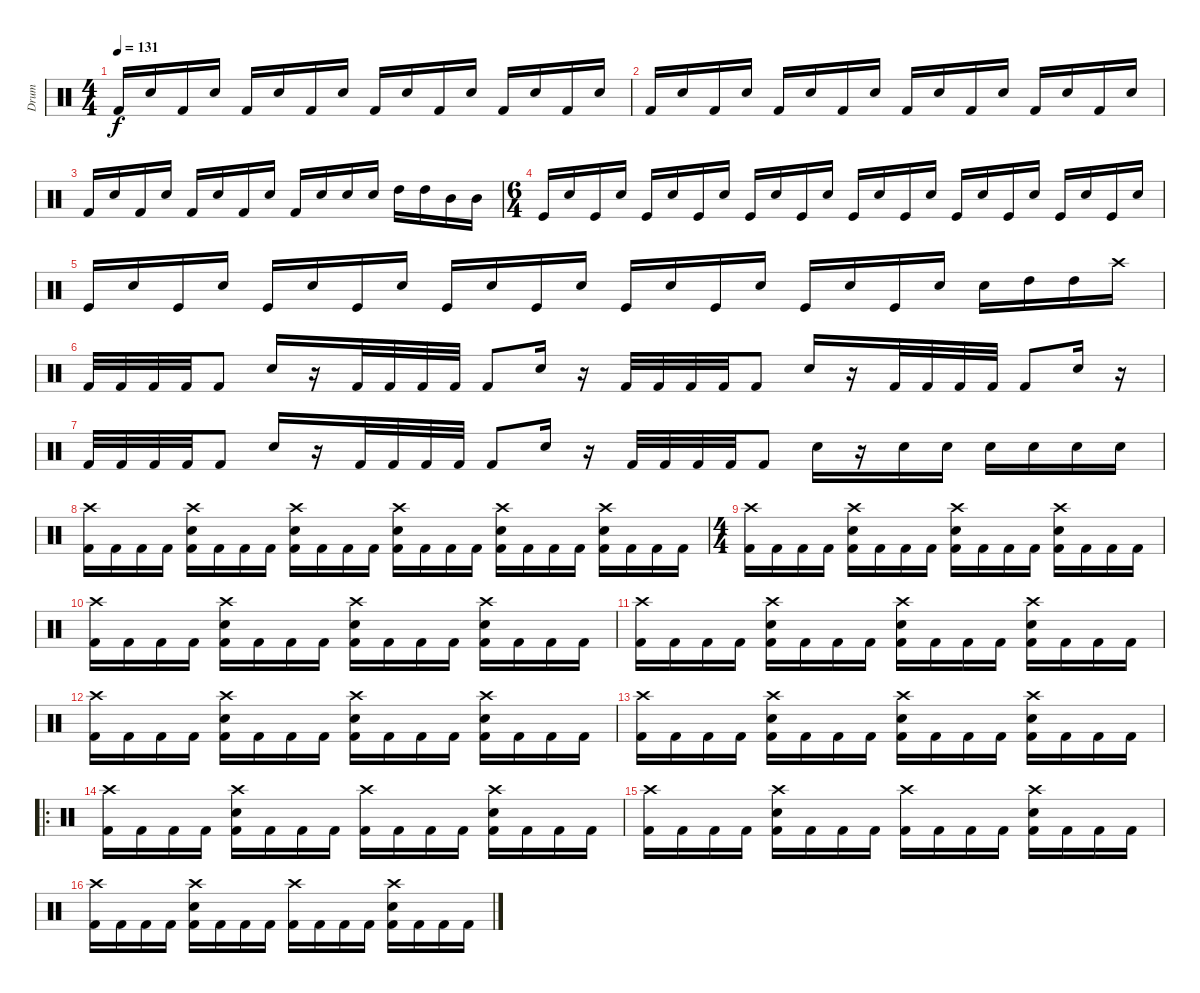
\track ("Drum" "Drum") {instrument percussion}
\staff {score}
\articulation defaults
\ts (4 4)
\tempo 131
\clef neutral
\ks c "Kick (hit) 2".16{dy f} "Electric Snare (hit)".16 "Kick (hit) 2".16 "Electric Snare (hit)".16 "Kick (hit) 2".16 "Electric Snare (hit)".16 "Kick (hit) 2".16 "Electric Snare (hit)".16 "Kick (hit) 2".16 "Electric Snare (hit)".16 "Kick (hit) 2".16 "Electric Snare (hit)".16 "Kick (hit) 2".16 "Electric Snare (hit)".16 "Kick (hit) 2".16 "Electric Snare (hit)".16
|
"Kick (hit) 2".16 "Electric Snare (hit)".16 "Kick (hit) 2".16 "Electric Snare (hit)".16 "Kick (hit) 2".16 "Electric Snare (hit)".16 "Kick (hit) 2".16 "Electric Snare (hit)".16 "Kick (hit) 2".16 "Electric Snare (hit)".16 "Kick (hit) 2".16 "Electric Snare (hit)".16 "Kick (hit) 2".16 "Electric Snare (hit)".16 "Kick (hit) 2".16 "Electric Snare (hit)".16 |
"Kick (hit) 2".16 "Electric Snare (hit)".16 "Kick (hit) 2".16 "Electric Snare (hit)".16 "Kick (hit) 2".16 "Electric Snare (hit)".16 "Kick (hit) 2".16 "Electric Snare (hit)".16 "Kick (hit) 2".16 "Electric Snare (hit)".16 "Electric Snare (hit)".16 "Electric Snare (hit)".16 "High Tom (hit)".16 "High Tom (hit)".16 "Mid Tom (hit)".16 "Mid Tom (hit)".16 |
\ts (6 4)
"Kick (hit)".16 "Electric Snare (hit)".16 "Kick (hit)".16 "Electric Snare (hit)".16 "Kick (hit)".16 "Electric Snare (hit)".16 "Kick (hit)".16 "Electric Snare (hit)".16 "Kick (hit)".16 "Electric Snare (hit)".16 "Kick (hit)".16 "Electric Snare (hit)".16 "Kick (hit)".16 "Electric Snare (hit)".16 "Kick (hit)".16 "Electric Snare (hit)".16 "Kick (hit)".16 "Electric Snare (hit)".16 "Kick (hit)".16 "Electric Snare (hit)".16 "Kick (hit)".16 "Electric Snare (hit)".16 "Kick (hit)".16 "Electric Snare (hit)".16 |
"Kick (hit)".16 "Electric Snare (hit)".16 "Kick (hit)".16 "Electric Snare (hit)".16 "Kick (hit)".16 "Electric Snare (hit)".16 "Kick (hit)".16 "Electric Snare (hit)".16 "Kick (hit)".16 "Electric Snare (hit)".16 "Kick (hit)".16 "Electric Snare (hit)".16 "Kick (hit)".16 "Electric Snare (hit)".16 "Kick (hit)".16 "Electric Snare (hit)".16 "Kick (hit)".16 "Electric Snare (hit)".16 "Kick (hit)".16 "Electric Snare (hit)".16 "Electric Snare (hit)".16 "High Tom (hit)".16 "High Tom (hit)".16 "Crash high (hit)".16 |
"Kick (hit) 2".32 "Kick (hit) 2".32 "Kick (hit) 2".32 "Kick (hit) 2".32 "Kick (hit) 2".8 "Electric Snare (hit)".16 r.16 "Kick (hit) 2".32 "Kick (hit) 2".32 "Kick (hit) 2".32 "Kick (hit) 2".32 "Kick (hit) 2".8 "Electric Snare (hit)".16 r.16 "Kick (hit) 2".32 "Kick (hit) 2".32 "Kick (hit) 2".32 "Kick (hit) 2".32 "Kick (hit) 2".8 "Electric Snare (hit)".16 r.16 "Kick (hit) 2".32 "Kick (hit) 2".32 "Kick (hit) 2".32 "Kick (hit) 2".32 "Kick (hit) 2".8 "Electric Snare (hit)".16 r.16 |
"Kick (hit) 2".32 "Kick (hit) 2".32 "Kick (hit) 2".32 "Kick (hit) 2".32 "Kick (hit) 2".8 "Electric Snare (hit)".16 r.16 "Kick (hit) 2".32 "Kick (hit) 2".32 "Kick (hit) 2".32 "Kick (hit) 2".32 "Kick (hit) 2".8 "Electric Snare (hit)".16 r.16 "Kick (hit) 2".32 "Kick (hit) 2".32 "Kick (hit) 2".32 "Kick (hit) 2".32 "Kick (hit) 2".8 "Electric Snare (hit)".16 r.16 "Electric Snare (hit)".16 "Electric Snare (hit)".16 "Electric Snare (hit)".16 "Electric Snare (hit)".16 "Electric Snare (hit)".16 "Electric Snare (hit)".16 |
("Crash high (hit)" "Kick (hit) 2").16 "Kick (hit) 2".16 "Kick (hit) 2".16 "Kick (hit) 2".16 ("Crash high (hit)" "Electric Snare (hit)" "Kick (hit) 2").16 "Kick (hit) 2".16 "Kick (hit) 2".16 "Kick (hit) 2".16 ("Crash high (hit)" "Electric Snare (hit)" "Kick (hit) 2").16 "Kick (hit) 2".16 "Kick (hit) 2".16 "Kick (hit) 2".16 ("Crash high (hit)" "Electric Snare (hit)" "Kick (hit) 2").16 "Kick (hit) 2".16 "Kick (hit) 2".16 "Kick (hit) 2".16 ("Crash high (hit)" "Electric Snare (hit)" "Kick (hit) 2").16 "Kick (hit) 2".16 "Kick (hit) 2".16 "Kick (hit) 2".16 ("Crash high (hit)" "Electric Snare (hit)" "Kick (hit) 2").16 "Kick (hit) 2".16 "Kick (hit) 2".16 "Kick (hit) 2".16 |
\ts (4 4)
("Crash high (hit)" "Kick (hit) 2").16 "Kick (hit) 2".16 "Kick (hit) 2".16 "Kick (hit) 2".16 ("Crash high (hit)" "Electric Snare (hit)" "Kick (hit) 2").16 "Kick (hit) 2".16 "Kick (hit) 2".16 "Kick (hit) 2".16 ("Crash high (hit)" "Electric Snare (hit)" "Kick (hit) 2").16 "Kick (hit) 2".16 "Kick (hit) 2".16 "Kick (hit) 2".16 ("Crash high (hit)" "Electric Snare (hit)" "Kick (hit) 2").16 "Kick (hit) 2".16 "Kick (hit) 2".16 "Kick (hit) 2".16 |
("Crash high (hit)" "Kick (hit) 2").16 "Kick (hit) 2".16 "Kick (hit) 2".16 "Kick (hit) 2".16 ("Crash high (hit)" "Electric Snare (hit)" "Kick (hit) 2").16 "Kick (hit) 2".16 "Kick (hit) 2".16 "Kick (hit) 2".16 ("Crash high (hit)" "Electric Snare (hit)" "Kick (hit) 2").16 "Kick (hit) 2".16 "Kick (hit) 2".16 "Kick (hit) 2".16 ("Crash high (hit)" "Electric Snare (hit)" "Kick (hit) 2").16 "Kick (hit) 2".16 "Kick (hit) 2".16 "Kick (hit) 2".16 |
("Crash high (hit)" "Kick (hit) 2").16 "Kick (hit) 2".16 "Kick (hit) 2".16 "Kick (hit) 2".16 ("Crash high (hit)" "Electric Snare (hit)" "Kick (hit) 2").16 "Kick (hit) 2".16 "Kick (hit) 2".16 "Kick (hit) 2".16 ("Crash high (hit)" "Electric Snare (hit)" "Kick (hit) 2").16 "Kick (hit) 2".16 "Kick (hit) 2".16 "Kick (hit) 2".16 ("Crash high (hit)" "Electric Snare (hit)" "Kick (hit) 2").16 "Kick (hit) 2".16 "Kick (hit) 2".16 "Kick (hit) 2".16 |
("Crash high (hit)" "Kick (hit) 2").16 "Kick (hit) 2".16 "Kick (hit) 2".16 "Kick (hit) 2".16 ("Crash high (hit)" "Electric Snare (hit)" "Kick (hit) 2").16 "Kick (hit) 2".16 "Kick (hit) 2".16 "Kick (hit) 2".16 ("Crash high (hit)" "Electric Snare (hit)" "Kick (hit) 2").16 "Kick (hit) 2".16 "Kick (hit) 2".16 "Kick (hit) 2".16 ("Crash high (hit)" "Electric Snare (hit)" "Kick (hit) 2").16 "Kick (hit) 2".16 "Kick (hit) 2".16 "Kick (hit) 2".16 |
("Crash high (hit)" "Kick (hit) 2").16 "Kick (hit) 2".16 "Kick (hit) 2".16 "Kick (hit) 2".16 ("Crash high (hit)" "Electric Snare (hit)" "Kick (hit) 2").16 "Kick (hit) 2".16 "Kick (hit) 2".16 "Kick (hit) 2".16 ("Crash high (hit)" "Electric Snare (hit)" "Kick (hit) 2").16 "Kick (hit) 2".16 "Kick (hit) 2".16 "Kick (hit) 2".16 ("Crash high (hit)" "Electric Snare (hit)" "Kick (hit) 2").16 "Kick (hit) 2".16 "Kick (hit) 2".16 "Kick (hit) 2".16 |
\ro
("Crash high (hit)" "Kick (hit) 2").16 "Kick (hit) 2".16 "Kick (hit) 2".16 "Kick (hit) 2".16 ("Crash high (hit)" "Electric Snare (hit)" "Kick (hit) 2").16 "Kick (hit) 2".16 "Kick (hit) 2".16 "Kick (hit) 2".16 ("Crash high (hit)" "Kick (hit) 2").16 "Kick (hit) 2".16 "Kick (hit) 2".16 "Kick (hit) 2".16 ("Crash high (hit)" "Electric Snare (hit)" "Kick (hit) 2").16 "Kick (hit) 2".16 "Kick (hit) 2".16 "Kick (hit) 2".16 |
("Crash high (hit)" "Kick (hit) 2").16 "Kick (hit) 2".16 "Kick (hit) 2".16 "Kick (hit) 2".16 ("Crash high (hit)" "Electric Snare (hit)" "Kick (hit) 2").16 "Kick (hit) 2".16 "Kick (hit) 2".16 "Kick (hit) 2".16 ("Crash high (hit)" "Kick (hit) 2").16 "Kick (hit) 2".16 "Kick (hit) 2".16 "Kick (hit) 2".16 ("Crash high (hit)" "Electric Snare (hit)" "Kick (hit) 2").16 "Kick (hit) 2".16 "Kick (hit) 2".16 "Kick (hit) 2".16 |
("Crash high (hit)" "Kick (hit) 2").16 "Kick (hit) 2".16 "Kick (hit) 2".16 "Kick (hit) 2".16 ("Crash high (hit)" "Electric Snare (hit)" "Kick (hit) 2").16 "Kick (hit) 2".16 "Kick (hit) 2".16 "Kick (hit) 2".16 ("Crash high (hit)" "Kick (hit) 2").16 "Kick (hit) 2".16 "Kick (hit) 2".16 "Kick (hit) 2".16 ("Crash high (hit)" "Electric Snare (hit)" "Kick (hit) 2").16 "Kick (hit) 2".16 "Kick (hit) 2".16 "Kick (hit) 2".16
